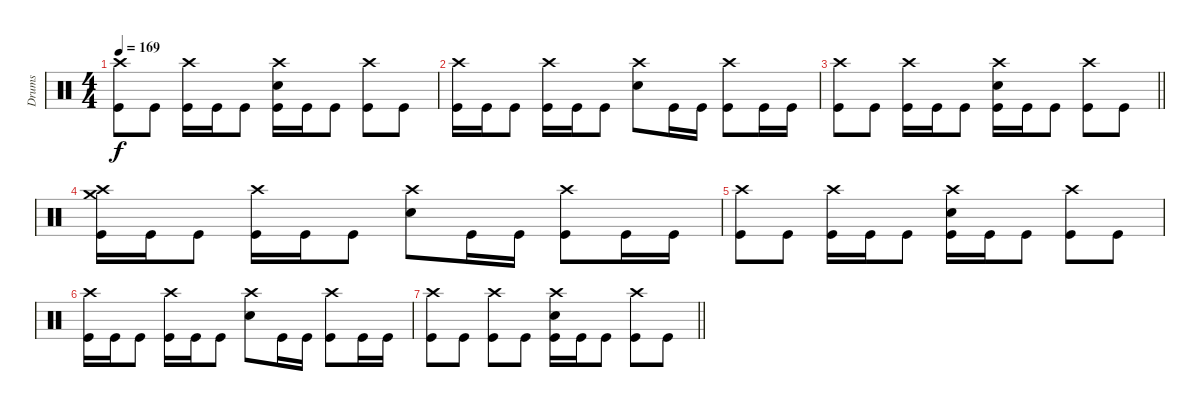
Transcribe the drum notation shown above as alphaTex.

\track ("Drums" "Drums") {instrument percussion}
\staff
\articulation defaults
\ts (4 4)
\tempo 169
\clef neutral
\ks c
("Crash high (hit)" "Kick (hit)").8{dy f} "Kick (hit)".8 ("Crash high (hit)" "Kick (hit)").16 "Kick (hit)".16 "Kick (hit)".8 ("Crash high (hit)" "Electric Snare (hit)" "Kick (hit)").16 "Kick (hit)".16 "Kick (hit)".8 ("Crash high (hit)" "Kick (hit)").8 "Kick (hit)".8 |
("Crash high (hit)" "Kick (hit)").16 "Kick (hit)".16 "Kick (hit)".8 ("Crash high (hit)" "Kick (hit)").16 "Kick (hit)".16 "Kick (hit)".8 ("Crash high (hit)" "Electric Snare (hit)").8 "Kick (hit)".16 "Kick (hit)".16 ("Crash high (hit)" "Kick (hit)").8 "Kick (hit)".16 "Kick (hit)".16 |
\barLineRight lightlight
("Crash high (hit)" "Kick (hit)").8 "Kick (hit)".8 ("Crash high (hit)" "Kick (hit)").16 "Kick (hit)".16 "Kick (hit)".8 ("Crash high (hit)" "Electric Snare (hit)" "Kick (hit)").16 "Kick (hit)".16 "Kick (hit)".8 ("Crash high (hit)" "Kick (hit)").8 "Kick (hit)".8 |
("Crash high (hit)" "Crash medium (hit)" "Kick (hit)").16 "Kick (hit)".16 "Kick (hit)".8 ("Crash high (hit)" "Kick (hit)").16 "Kick (hit)".16 "Kick (hit)".8 ("Crash high (hit)" "Electric Snare (hit)").8 "Kick (hit)".16 "Kick (hit)".16 ("Crash high (hit)" "Kick (hit)").8 "Kick (hit)".16 "Kick (hit)".16 |
("Crash high (hit)" "Kick (hit)").8 "Kick (hit)".8 ("Crash high (hit)" "Kick (hit)").16 "Kick (hit)".16 "Kick (hit)".8 ("Crash high (hit)" "Electric Snare (hit)" "Kick (hit)").16 "Kick (hit)".16 "Kick (hit)".8 ("Crash high (hit)" "Kick (hit)").8 "Kick (hit)".8 |
("Crash high (hit)" "Kick (hit)").16 "Kick (hit)".16 "Kick (hit)".8 ("Crash high (hit)" "Kick (hit)").16 "Kick (hit)".16 "Kick (hit)".8 ("Crash high (hit)" "Electric Snare (hit)").8 "Kick (hit)".16 "Kick (hit)".16 ("Crash high (hit)" "Kick (hit)").8 "Kick (hit)".16 "Kick (hit)".16 |
\barLineRight lightlight
("Crash high (hit)" "Kick (hit)").8 "Kick (hit)".8 ("Crash high (hit)" "Kick (hit)").8 "Kick (hit)".8 ("Crash high (hit)" "Electric Snare (hit)" "Kick (hit)").16 "Kick (hit)".16 "Kick (hit)".8 ("Crash high (hit)" "Kick (hit)").8 "Kick (hit)".8
